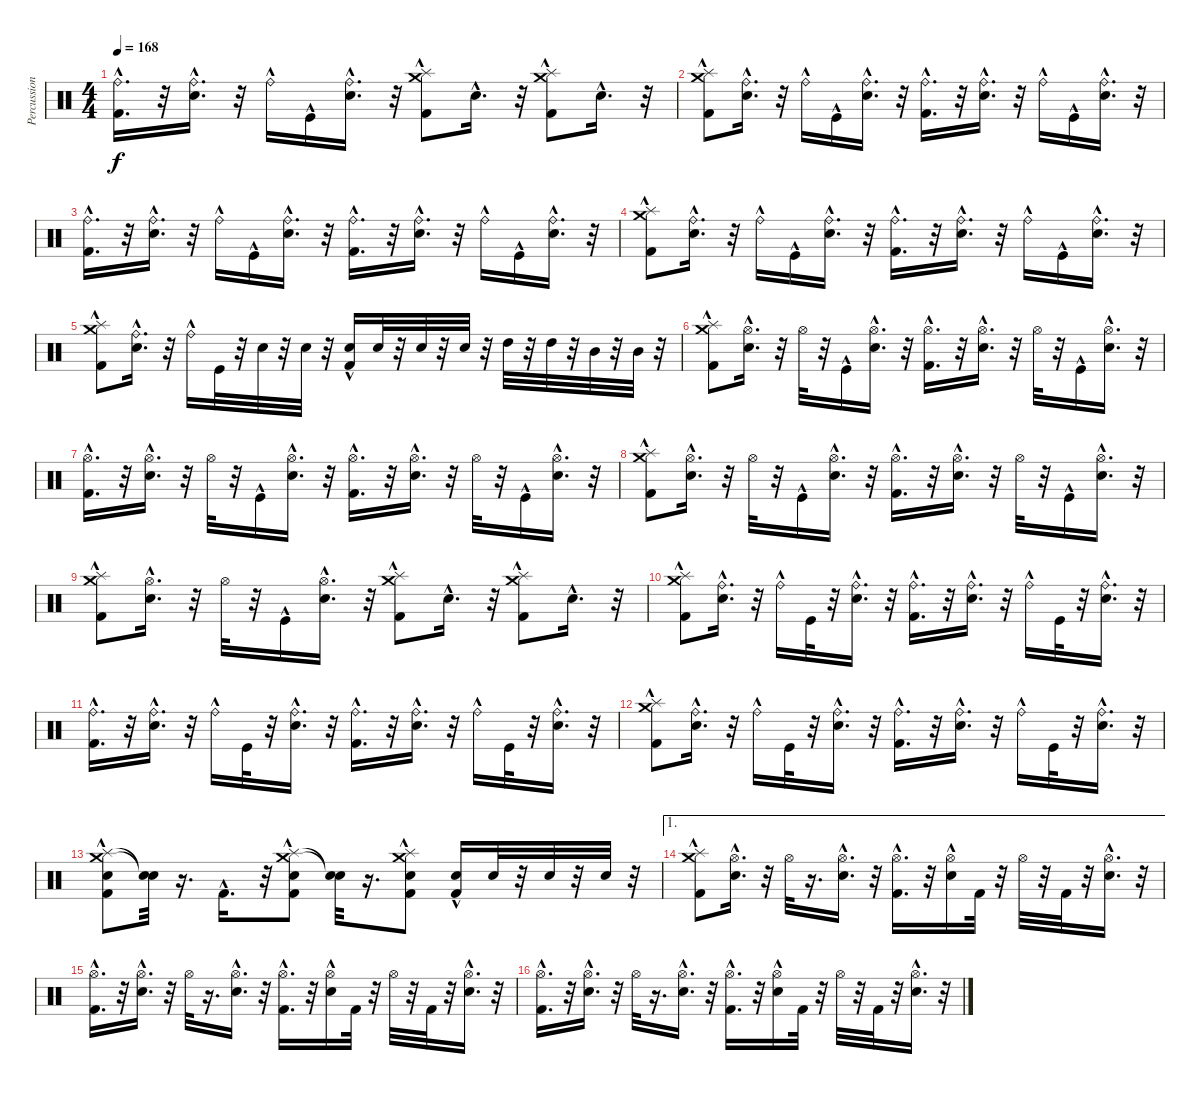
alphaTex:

\track ("Percussion" "Percussion") {instrument percussion}
\staff {score}
\articulation defaults
\ts (4 4)
\tempo 168
\clef neutral
\ks c
("Kick (hit) 2"{hac} "Ride (bell)"{hac}).16{d dy f} r.32 ("Electric Snare (hit)"{hac} "Ride (bell)"{hac}).16{d} r.32 "Ride (bell)"{hac}.16 "Kick (hit)"{hac}.16 ("Electric Snare (hit)"{hac} "Ride (bell)"{hac}).16{d} r.32 ("Kick (hit) 2"{hac} "Splash (hit)" "Crash medium (hit)").8 "Electric Snare (hit)"{hac}.16{d} r.32 ("Splash (hit)" "Crash medium (hit)" "Kick (hit) 2"{hac}).8 "Electric Snare (hit)"{hac}.16{d} r.32 |
("Splash (hit)" "Crash medium (hit)" "Kick (hit) 2"{hac}).8 ("Ride (bell)"{hac} "Electric Snare (hit)"{hac}).16{d} r.32 "Ride (bell)"{hac}.16 "Kick (hit)"{hac}.16 ("Ride (bell)"{hac} "Electric Snare (hit)"{hac}).16{d} r.32 ("Ride (bell)"{hac} "Kick (hit) 2"{hac}).16{d} r.32 ("Ride (bell)"{hac} "Electric Snare (hit)"{hac}).16{d} r.32 "Ride (bell)"{hac}.16 "Kick (hit)"{hac}.16 ("Ride (bell)"{hac} "Electric Snare (hit)"{hac}).16{d} r.32 |
("Kick (hit) 2"{hac} "Ride (bell)"{hac}).16{d} r.32 ("Electric Snare (hit)"{hac} "Ride (bell)"{hac}).16{d} r.32 "Ride (bell)"{hac}.16 "Kick (hit)"{hac}.16 ("Electric Snare (hit)"{hac} "Ride (bell)"{hac}).16{d} r.32 ("Kick (hit) 2"{hac} "Ride (bell)"{hac}).16{d} r.32 ("Electric Snare (hit)"{hac} "Ride (bell)"{hac}).16{d} r.32 "Ride (bell)"{hac}.16 "Kick (hit)"{hac}.16 ("Electric Snare (hit)"{hac} "Ride (bell)"{hac}).16{d} r.32 |
("Kick (hit) 2"{hac} "Splash (hit)" "Crash medium (hit)").8 ("Electric Snare (hit)"{hac} "Ride (bell)"{hac}).16{d} r.32 "Ride (bell)"{hac}.16 "Kick (hit)"{hac}.16 ("Electric Snare (hit)"{hac} "Ride (bell)"{hac}).16{d} r.32 ("Kick (hit) 2"{hac} "Ride (bell)"{hac}).16{d} r.32 ("Electric Snare (hit)"{hac} "Ride (bell)"{hac}).16{d} r.32 "Ride (bell)"{hac}.16 "Kick (hit)"{hac}.16 ("Electric Snare (hit)"{hac} "Ride (bell)"{hac}).16{d} r.32 |
("Splash (hit)" "Crash medium (hit)" "Kick (hit) 2"{hac}).8 ("Electric Snare (hit)"{hac} "Ride (bell)"{hac}).16{d} r.32 "Ride (bell)"{hac}.16 "Kick (hit)".32 r.32 "Electric Snare (hit)".32 r.32 "Electric Snare (hit)".32 r.32 ("Electric Snare (hit)" "Kick (hit) 2"{hac}).16 "Snare (hit) 2".32 r.32 "Snare (hit) 2".32 r.32 "Snare (hit) 2".32 r.32 "High Tom (hit)".32 r.32 "High Tom (hit)".32 r.32 "Mid Tom (hit)".32 r.32 "Mid Tom (hit)".32 r.32 |
("Splash (hit)" "Crash medium (hit)" "Kick (hit) 2"{hac}).8 ("Electric Snare (hit)"{hac} "Hi-Hat (open)").16{d} r.32 "Hi-Hat (open)".32 r.32 "Kick (hit)"{hac}.16 ("Electric Snare (hit)"{hac} "Hi-Hat (open)").16{d} r.32 ("Kick (hit) 2"{hac} "Hi-Hat (open)").16{d} r.32 ("Electric Snare (hit)"{hac} "Hi-Hat (open)").16{d} r.32 "Hi-Hat (open)".32 r.32 "Kick (hit)"{hac}.16 ("Electric Snare (hit)"{hac} "Hi-Hat (open)").16{d} r.32 |
("Kick (hit) 2"{hac} "Hi-Hat (open)").16{d} r.32 ("Electric Snare (hit)"{hac} "Hi-Hat (open)").16{d} r.32 "Hi-Hat (open)".32 r.32 "Kick (hit)"{hac}.16 ("Electric Snare (hit)"{hac} "Hi-Hat (open)").16{d} r.32 ("Kick (hit) 2"{hac} "Hi-Hat (open)").16{d} r.32 ("Electric Snare (hit)"{hac} "Hi-Hat (open)").16{d} r.32 "Hi-Hat (open)".32 r.32 "Kick (hit)"{hac}.16 ("Electric Snare (hit)"{hac} "Hi-Hat (open)").16{d} r.32 |
("Kick (hit) 2"{hac} "Splash (hit)" "Crash medium (hit)").8 ("Electric Snare (hit)"{hac} "Hi-Hat (open)").16{d} r.32 "Hi-Hat (open)".32 r.32 "Kick (hit)"{hac}.16 ("Electric Snare (hit)"{hac} "Hi-Hat (open)").16{d} r.32 ("Kick (hit) 2"{hac} "Hi-Hat (open)").16{d} r.32 ("Electric Snare (hit)"{hac} "Hi-Hat (open)").16{d} r.32 "Hi-Hat (open)".32 r.32 "Kick (hit)"{hac}.16 ("Electric Snare (hit)"{hac} "Hi-Hat (open)").16{d} r.32 |
("Kick (hit) 2"{hac} "Splash (hit)" "Crash medium (hit)").8 ("Electric Snare (hit)"{hac} "Hi-Hat (open)").16{d} r.32 "Hi-Hat (open)".32 r.32 "Kick (hit)"{hac}.16 ("Electric Snare (hit)"{hac} "Hi-Hat (open)").16{d} r.32 ("Kick (hit) 2"{hac} "Splash (hit)" "Crash medium (hit)").8 "Electric Snare (hit)"{hac}.16{d} r.32 ("Splash (hit)" "Crash medium (hit)" "Kick (hit) 2"{hac}).8 "Electric Snare (hit)"{hac}.16{d} r.32 |
("Crash medium (hit)" "Splash (hit)" "Kick (hit) 2"{hac}).8 ("Electric Snare (hit)"{hac} "Ride (bell)"{hac}).16{d} r.32 "Ride (bell)"{hac}.16 "Kick (hit)".32 r.32 ("Electric Snare (hit)"{hac} "Ride (bell)"{hac}).16{d} r.32 ("Kick (hit) 2"{hac} "Ride (bell)"{hac}).16{d} r.32 ("Electric Snare (hit)"{hac} "Ride (bell)"{hac}).16{d} r.32 "Ride (bell)"{hac}.16 "Kick (hit)".32 r.32 ("Electric Snare (hit)"{hac} "Ride (bell)"{hac}).16{d} r.32 |
("Kick (hit) 2"{hac} "Ride (bell)"{hac}).16{d} r.32 ("Electric Snare (hit)"{hac} "Ride (bell)"{hac}).16{d} r.32 "Ride (bell)"{hac}.16 "Kick (hit)".32 r.32 ("Electric Snare (hit)"{hac} "Ride (bell)"{hac}).16{d} r.32 ("Kick (hit) 2"{hac} "Ride (bell)"{hac}).16{d} r.32 ("Electric Snare (hit)"{hac} "Ride (bell)"{hac}).16{d} r.32 "Ride (bell)"{hac}.16 "Kick (hit)".32 r.32 ("Electric Snare (hit)"{hac} "Ride (bell)"{hac}).16{d} r.32 |
("Crash medium (hit)" "Splash (hit)" "Kick (hit) 2"{hac}).8 ("Electric Snare (hit)"{hac} "Ride (bell)"{hac}).16{d} r.32 "Ride (bell)"{hac}.16 "Kick (hit)".32 r.32 ("Electric Snare (hit)"{hac} "Ride (bell)"{hac}).16{d} r.32 ("Kick (hit) 2"{hac} "Ride (bell)"{hac}).16{d} r.32 ("Electric Snare (hit)"{hac} "Ride (bell)"{hac}).16{d} r.32 "Ride (bell)"{hac}.16 "Kick (hit)".32 r.32 ("Electric Snare (hit)"{hac} "Ride (bell)"{hac}).16{d} r.32 |
("Crash medium (hit)" "Splash (hit)" "Kick (hit) 2"{hac} "Electric Snare (hit)"{hac}).8 ("Snare (hit)"{t} "Snare (hit)"{t}).32 r.16{d} "Kick (hit) 2"{hac}.16{d} r.32 ("Splash (hit)" "Crash medium (hit)" "Kick (hit) 2"{hac} "Electric Snare (hit)"{hac}).8 ("Snare (hit)"{t} "Snare (hit)"{t}).32 r.16{d} ("Splash (hit)" "Crash medium (hit)" "Kick (hit) 2"{hac} "Electric Snare (hit)"{hac}).8 ("Electric Snare (hit)" "Kick (hit) 2"{hac}).16 "Electric Snare (hit)".32 r.32 "Electric Snare (hit)".32 r.32 "Electric Snare (hit)".32 r.32 |
\ae 1
("Crash medium (hit)" "Splash (hit)" "Kick (hit) 2"{hac}).8 ("Electric Snare (hit)"{hac} "Hi-Hat (open)").16{d} r.32 "Hi-Hat (open)".32 r.16{d} ("Electric Snare (hit)"{hac} "Hi-Hat (open)").16{d} r.32 ("Kick (hit) 2"{hac} "Hi-Hat (open)").16{d} r.32 ("Electric Snare (hit)"{hac} "Hi-Hat (open)").16 "Kick (hit) 2".32 r.32 "Hi-Hat (open)".32 r.32 "Kick (hit) 2".32 r.32 ("Electric Snare (hit)"{hac} "Hi-Hat (open)").16{d} r.32 |
("Kick (hit) 2"{hac} "Hi-Hat (open)").16{d} r.32 ("Electric Snare (hit)"{hac} "Hi-Hat (open)").16{d} r.32 "Hi-Hat (open)".32 r.16{d} ("Electric Snare (hit)"{hac} "Hi-Hat (open)").16{d} r.32 ("Kick (hit) 2"{hac} "Hi-Hat (open)").16{d} r.32 ("Electric Snare (hit)"{hac} "Hi-Hat (open)").16 "Kick (hit) 2".32 r.32 "Hi-Hat (open)".32 r.32 "Kick (hit) 2".32 r.32 ("Electric Snare (hit)"{hac} "Hi-Hat (open)").16{d} r.32 |
("Kick (hit) 2"{hac} "Hi-Hat (open)").16{d} r.32 ("Electric Snare (hit)"{hac} "Hi-Hat (open)").16{d} r.32 "Hi-Hat (open)".32 r.16{d} ("Electric Snare (hit)"{hac} "Hi-Hat (open)").16{d} r.32 ("Kick (hit) 2"{hac} "Hi-Hat (open)").16{d} r.32 ("Electric Snare (hit)"{hac} "Hi-Hat (open)").16 "Kick (hit) 2".32 r.32 "Hi-Hat (open)".32 r.32 "Kick (hit) 2".32 r.32 ("Electric Snare (hit)"{hac} "Hi-Hat (open)").16{d} r.32
